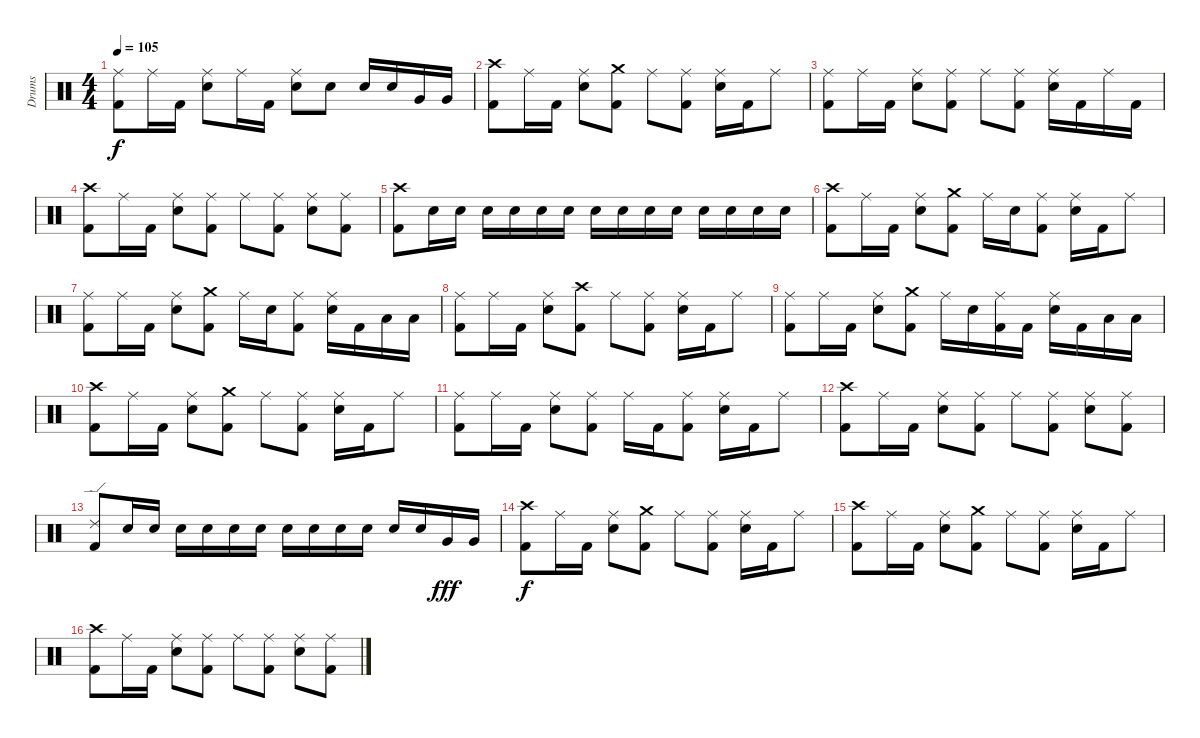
\track ("Drums" "Drums") {instrument percussion}
\staff {score}
\articulation defaults
\ts (4 4)
\tempo 105
\clef neutral
\ks c
("Ride (middle)" "Kick (hit) 2").8{dy f} "Ride (middle)".16 "Kick (hit) 2".16 ("Ride (middle)" "Electric Snare (hit)").8 "Ride (middle)".16 "Kick (hit) 2".16 ("Ride (middle)" "Electric Snare (hit)").8 "Electric Snare (hit)".8 "Electric Snare (hit)".16 "Electric Snare (hit)".16 "Very Low Tom (hit)".16 "Very Low Tom (hit)".16 |
("Crash high (hit)" "Kick (hit) 2").8 "Ride (middle)".16 "Kick (hit) 2".16 ("Ride (middle)" "Electric Snare (hit)").8 ("Crash medium (hit)" "Kick (hit) 2").8 "Ride (middle)".8 ("Ride (middle)" "Kick (hit) 2").8 ("Ride (middle)" "Electric Snare (hit)").16 "Kick (hit) 2".16 "Ride (middle)".8 |
("Ride (middle)" "Kick (hit) 2").8 "Ride (middle)".16 "Kick (hit) 2".16 ("Ride (middle)" "Electric Snare (hit)").8 ("Ride (middle)" "Kick (hit) 2").8 "Ride (middle)".8 ("Ride (middle)" "Kick (hit) 2").8 ("Ride (middle)" "Electric Snare (hit)").16 "Kick (hit) 2".16 "Ride (middle)".16 "Kick (hit) 2".16 |
("Crash high (hit)" "Kick (hit) 2").8 "Ride (middle)".16 "Kick (hit) 2".16 ("Ride (middle)" "Electric Snare (hit)").8 ("Ride (middle)" "Kick (hit) 2").8 "Ride (middle)".8 ("Ride (middle)" "Kick (hit) 2").8 ("Ride (middle)" "Electric Snare (hit)").8 ("Ride (middle)" "Kick (hit) 2").8 |
("Crash high (hit)" "Kick (hit) 2").8 "Electric Snare (hit)".16 "Electric Snare (hit)".16 "Electric Snare (hit)".16 "Electric Snare (hit)".16 "Electric Snare (hit)".16 "Electric Snare (hit)".16 "Electric Snare (hit)".16 "Electric Snare (hit)".16 "Electric Snare (hit)".16 "Electric Snare (hit)".16 "Electric Snare (hit)".16 "Electric Snare (hit)".16 "Electric Snare (hit)".16 "Electric Snare (hit)".16 |
("Crash high (hit)" "Kick (hit) 2").8 "Ride (middle)".16 "Kick (hit) 2".16 ("Ride (middle)" "Electric Snare (hit)").8 ("Crash medium (hit)" "Kick (hit) 2").8 "Ride (middle)".16 "Electric Snare (hit)".16 ("Ride (middle)" "Kick (hit) 2").8 ("Ride (middle)" "Electric Snare (hit)").16 "Kick (hit) 2".16 "Ride (middle)".8 |
("Ride (middle)" "Kick (hit) 2").8 "Ride (middle)".16 "Kick (hit) 2".16 ("Ride (middle)" "Electric Snare (hit)").8 ("Crash medium (hit)" "Kick (hit) 2").8 "Ride (middle)".16 "Electric Snare (hit)".16 ("Ride (middle)" "Kick (hit) 2").8 ("Ride (middle)" "Electric Snare (hit)").16 "Kick (hit) 2".16 "Low Tom (hit)".16 "Low Tom (hit)".16 |
("Ride (middle)" "Kick (hit) 2").8 "Ride (middle)".16 "Kick (hit) 2".16 ("Ride (middle)" "Electric Snare (hit)").8 ("Crash high (hit)" "Kick (hit) 2").8 "Ride (middle)".8 ("Ride (middle)" "Kick (hit) 2").8 ("Ride (middle)" "Electric Snare (hit)").16 "Kick (hit) 2".16 "Ride (middle)".8 |
("Ride (middle)" "Kick (hit) 2").8 "Ride (middle)".16 "Kick (hit) 2".16 ("Ride (middle)" "Electric Snare (hit)").8 ("Crash medium (hit)" "Kick (hit) 2").8 "Ride (middle)".16 "Electric Snare (hit)".16 ("Ride (middle)" "Kick (hit) 2").16 "Kick (hit) 2".16 ("Ride (middle)" "Electric Snare (hit)").16 "Kick (hit) 2".16 "Low Tom (hit)".16 "Low Tom (hit)".16 |
("Crash high (hit)" "Kick (hit) 2").8 "Ride (middle)".16 "Kick (hit) 2".16 ("Ride (middle)" "Electric Snare (hit)").8 ("Crash medium (hit)" "Kick (hit) 2").8 "Ride (middle)".8 ("Ride (middle)" "Kick (hit) 2").8 ("Ride (middle)" "Electric Snare (hit)").16 "Kick (hit) 2".16 "Ride (middle)".8 |
("Ride (middle)" "Kick (hit) 2").8 "Ride (middle)".16 "Kick (hit) 2".16 ("Ride (middle)" "Electric Snare (hit)").8 ("Ride (middle)" "Kick (hit) 2").8 "Ride (middle)".16 "Kick (hit) 2".16 ("Ride (middle)" "Kick (hit) 2").8 ("Ride (middle)" "Electric Snare (hit)").16 "Kick (hit) 2".16 "Ride (middle)".8 |
("Crash high (hit)" "Kick (hit) 2").8 "Ride (middle)".16 "Kick (hit) 2".16 ("Ride (middle)" "Electric Snare (hit)").8 ("Ride (middle)" "Kick (hit) 2").8 "Ride (middle)".8 ("Ride (middle)" "Kick (hit) 2").8 ("Ride (middle)" "Electric Snare (hit)").8 ("Ride (middle)" "Kick (hit) 2").8 |
("Ride (edge) 2" "Kick (hit) 2").8 "Electric Snare (hit)".16 "Electric Snare (hit)".16 "Electric Snare (hit)".16 "Electric Snare (hit)".16 "Electric Snare (hit)".16 "Electric Snare (hit)".16 "Electric Snare (hit)".16 "Electric Snare (hit)".16 "Electric Snare (hit)".16 "Electric Snare (hit)".16 "Electric Snare (hit)".16 "Electric Snare (hit)".16 "Very Low Tom (hit)".16{dy fff} "Very Low Tom (hit)".16 |
("Crash high (hit)" "Kick (hit) 2").8{dy f} "Ride (middle)".16 "Kick (hit) 2".16 ("Ride (middle)" "Electric Snare (hit)").8 ("Crash medium (hit)" "Kick (hit) 2").8 "Ride (middle)".8 ("Ride (middle)" "Kick (hit) 2").8 ("Ride (middle)" "Electric Snare (hit)").16 "Kick (hit) 2".16 "Ride (middle)".8 |
("Crash high (hit)" "Kick (hit) 2").8 "Ride (middle)".16 "Kick (hit) 2".16 ("Ride (middle)" "Electric Snare (hit)").8 ("Crash medium (hit)" "Kick (hit) 2").8 "Ride (middle)".8 ("Ride (middle)" "Kick (hit) 2").8 ("Ride (middle)" "Electric Snare (hit)").16 "Kick (hit) 2".16 "Ride (middle)".8 |
("Crash high (hit)" "Kick (hit) 2").8 "Ride (middle)".16 "Kick (hit) 2".16 ("Ride (middle)" "Electric Snare (hit)").8 ("Ride (middle)" "Kick (hit) 2").8 "Ride (middle)".8 ("Ride (middle)" "Kick (hit) 2").8 ("Ride (middle)" "Electric Snare (hit)").8 ("Ride (middle)" "Kick (hit) 2").8
